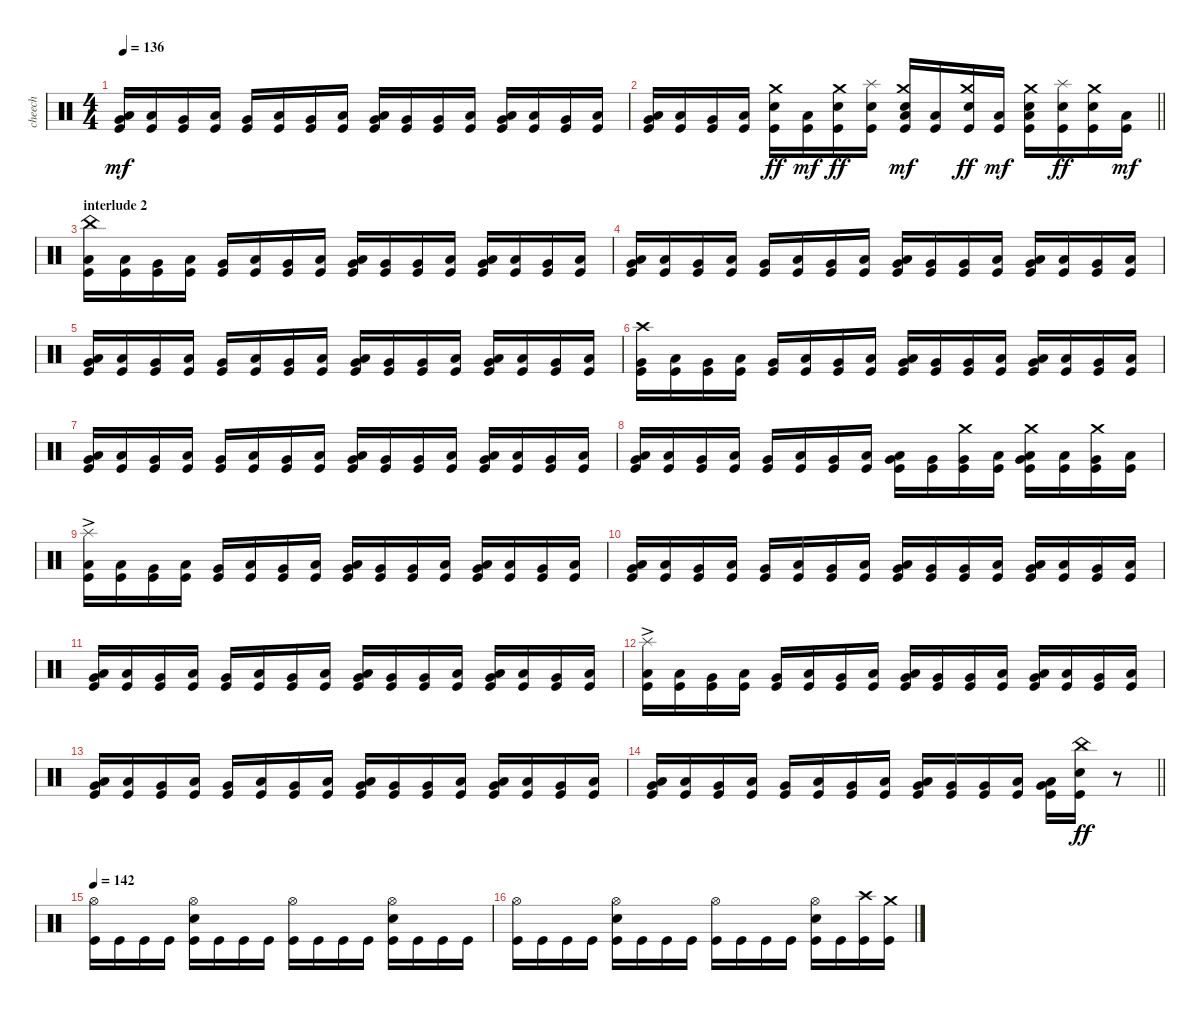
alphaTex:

\track ("cheech" "cheech") {instrument percussion}
\staff {score}
\articulation defaults
\ts (4 4)
\tempo 136
\clef neutral
\ks c
("Very Low Tom (hit)" "Low Floor Tom (hit)" "Kick (hit)").16{dy mf} ("Low Tom (hit)" "Kick (hit)").16 ("Very Low Tom (hit)" "Kick (hit)").16 ("Low Floor Tom (hit)" "Kick (hit)").16 ("Very Low Tom (hit)" "Kick (hit)").16 ("Low Floor Tom (hit)" "Kick (hit)").16 ("Very Low Tom (hit)" "Kick (hit)").16 ("Low Floor Tom (hit)" "Kick (hit)").16 ("Very Low Tom (hit)" "Low Floor Tom (hit)" "Kick (hit)").16 ("Very Low Tom (hit)" "Kick (hit)").16 ("Very Low Tom (hit)" "Kick (hit)").16 ("Low Floor Tom (hit)" "Kick (hit)").16 ("Very Low Tom (hit)" "Low Floor Tom (hit)" "Kick (hit)").16 ("Low Floor Tom (hit)" "Kick (hit)").16 ("Very Low Tom (hit)" "Kick (hit)").16 ("Low Floor Tom (hit)" "Kick (hit)").16 |
\barLineRight lightlight
("Very Low Tom (hit)" "Low Floor Tom (hit)" "Kick (hit)").16 ("Low Tom (hit)" "Kick (hit)").16 ("Very Low Tom (hit)" "Kick (hit)").16 ("Low Floor Tom (hit)" "Kick (hit)").16 ("Crash medium (hit)" "Electric Snare (hit)" "Kick (hit)").16{dy ff} ("Low Floor Tom (hit)" "Kick (hit)").16{dy mf} ("Crash medium (hit)" "Electric Snare (hit)" "Kick (hit)").16{dy ff} ("Splash (hit)" "Electric Snare (hit)" "Kick (hit)").16 ("Crash medium (hit)" "Electric Snare (hit)" "Low Floor Tom (hit)" "Kick (hit)").16{dy mf} ("Low Tom (hit)" "Kick (hit)").16 ("Crash medium (hit)" "Electric Snare (hit)" "Kick (hit)").16{dy ff} ("Low Floor Tom (hit)" "Kick (hit)").16{dy mf} ("Crash medium (hit)" "Electric Snare (hit)" "Low Floor Tom (hit)" "Kick (hit)").16 ("Splash (hit)" "Electric Snare (hit)" "Kick (hit)").16{dy ff} ("Crash medium (hit)" "Electric Snare (hit)" "Kick (hit)").16 ("Low Floor Tom (hit)" "Kick (hit)").16{dy mf} |
\section ("" "interlude 2")
("China (hit)" "Low Floor Tom (hit)" "Kick (hit)").16 ("Low Tom (hit)" "Kick (hit)").16 ("Very Low Tom (hit)" "Kick (hit)").16 ("Low Floor Tom (hit)" "Kick (hit)").16 ("Very Low Tom (hit)" "Kick (hit)").16 ("Low Floor Tom (hit)" "Kick (hit)").16 ("Very Low Tom (hit)" "Kick (hit)").16 ("Low Floor Tom (hit)" "Kick (hit)").16 ("Very Low Tom (hit)" "Low Floor Tom (hit)" "Kick (hit)").16 ("Very Low Tom (hit)" "Kick (hit)").16 ("Very Low Tom (hit)" "Kick (hit)").16 ("Low Floor Tom (hit)" "Kick (hit)").16 ("Very Low Tom (hit)" "Low Floor Tom (hit)" "Kick (hit)").16 ("Low Floor Tom (hit)" "Kick (hit)").16 ("Very Low Tom (hit)" "Kick (hit)").16 ("Low Floor Tom (hit)" "Kick (hit)").16 |
("Very Low Tom (hit)" "Low Floor Tom (hit)" "Kick (hit)").16 ("Low Tom (hit)" "Kick (hit)").16 ("Very Low Tom (hit)" "Kick (hit)").16 ("Low Floor Tom (hit)" "Kick (hit)").16 ("Very Low Tom (hit)" "Kick (hit)").16 ("Low Floor Tom (hit)" "Kick (hit)").16 ("Very Low Tom (hit)" "Kick (hit)").16 ("Low Floor Tom (hit)" "Kick (hit)").16 ("Very Low Tom (hit)" "Low Floor Tom (hit)" "Kick (hit)").16 ("Very Low Tom (hit)" "Kick (hit)").16 ("Very Low Tom (hit)" "Kick (hit)").16 ("Low Floor Tom (hit)" "Kick (hit)").16 ("Very Low Tom (hit)" "Low Floor Tom (hit)" "Kick (hit)").16 ("Low Floor Tom (hit)" "Kick (hit)").16 ("Very Low Tom (hit)" "Kick (hit)").16 ("Low Floor Tom (hit)" "Kick (hit)").16 |
("Very Low Tom (hit)" "Low Floor Tom (hit)" "Kick (hit)").16 ("Low Tom (hit)" "Kick (hit)").16 ("Very Low Tom (hit)" "Kick (hit)").16 ("Low Floor Tom (hit)" "Kick (hit)").16 ("Very Low Tom (hit)" "Kick (hit)").16 ("Low Floor Tom (hit)" "Kick (hit)").16 ("Very Low Tom (hit)" "Kick (hit)").16 ("Low Floor Tom (hit)" "Kick (hit)").16 ("Very Low Tom (hit)" "Low Floor Tom (hit)" "Kick (hit)").16 ("Very Low Tom (hit)" "Kick (hit)").16 ("Very Low Tom (hit)" "Kick (hit)").16 ("Low Floor Tom (hit)" "Kick (hit)").16 ("Very Low Tom (hit)" "Low Floor Tom (hit)" "Kick (hit)").16 ("Low Floor Tom (hit)" "Kick (hit)").16 ("Very Low Tom (hit)" "Kick (hit)").16 ("Low Floor Tom (hit)" "Kick (hit)").16 |
("Crash high (hit)" "Very Low Tom (hit)" "Kick (hit)").16 ("Low Tom (hit)" "Kick (hit)").16 ("Very Low Tom (hit)" "Kick (hit)").16 ("Low Floor Tom (hit)" "Kick (hit)").16 ("Very Low Tom (hit)" "Kick (hit)").16 ("Low Floor Tom (hit)" "Kick (hit)").16 ("Very Low Tom (hit)" "Kick (hit)").16 ("Low Floor Tom (hit)" "Kick (hit)").16 ("Very Low Tom (hit)" "Low Floor Tom (hit)" "Kick (hit)").16 ("Very Low Tom (hit)" "Kick (hit)").16 ("Very Low Tom (hit)" "Kick (hit)").16 ("Low Floor Tom (hit)" "Kick (hit)").16 ("Very Low Tom (hit)" "Low Floor Tom (hit)" "Kick (hit)").16 ("Low Floor Tom (hit)" "Kick (hit)").16 ("Very Low Tom (hit)" "Kick (hit)").16 ("Low Floor Tom (hit)" "Kick (hit)").16 |
("Very Low Tom (hit)" "Low Floor Tom (hit)" "Kick (hit)").16 ("Low Tom (hit)" "Kick (hit)").16 ("Very Low Tom (hit)" "Kick (hit)").16 ("Low Floor Tom (hit)" "Kick (hit)").16 ("Very Low Tom (hit)" "Kick (hit)").16 ("Low Floor Tom (hit)" "Kick (hit)").16 ("Very Low Tom (hit)" "Kick (hit)").16 ("Low Floor Tom (hit)" "Kick (hit)").16 ("Very Low Tom (hit)" "Low Floor Tom (hit)" "Kick (hit)").16 ("Very Low Tom (hit)" "Kick (hit)").16 ("Very Low Tom (hit)" "Kick (hit)").16 ("Low Floor Tom (hit)" "Kick (hit)").16 ("Very Low Tom (hit)" "Low Floor Tom (hit)" "Kick (hit)").16 ("Low Floor Tom (hit)" "Kick (hit)").16 ("Very Low Tom (hit)" "Kick (hit)").16 ("Low Floor Tom (hit)" "Kick (hit)").16 |
("Very Low Tom (hit)" "Low Floor Tom (hit)" "Kick (hit)").16 ("Low Tom (hit)" "Kick (hit)").16 ("Very Low Tom (hit)" "Kick (hit)").16 ("Low Floor Tom (hit)" "Kick (hit)").16 ("Very Low Tom (hit)" "Kick (hit)").16 ("Low Floor Tom (hit)" "Kick (hit)").16 ("Very Low Tom (hit)" "Kick (hit)").16 ("Low Floor Tom (hit)" "Kick (hit)").16 ("Very Low Tom (hit)" "Low Floor Tom (hit)" "Kick (hit)").16 ("Very Low Tom (hit)" "Kick (hit)").16 ("Crash medium (hit)" "Very Low Tom (hit)" "Kick (hit)").16 ("Low Floor Tom (hit)" "Kick (hit)").16 ("Crash medium (hit)" "Very Low Tom (hit)" "Low Floor Tom (hit)" "Kick (hit)").16 ("Low Floor Tom (hit)" "Kick (hit)").16 ("Crash medium (hit)" "Very Low Tom (hit)" "Kick (hit)").16 ("Low Floor Tom (hit)" "Kick (hit)").16 |
("Splash (hit)"{ac} "Low Floor Tom (hit)" "Kick (hit)").16 ("Low Tom (hit)" "Kick (hit)").16 ("Very Low Tom (hit)" "Kick (hit)").16 ("Low Floor Tom (hit)" "Kick (hit)").16 ("Very Low Tom (hit)" "Kick (hit)").16 ("Low Floor Tom (hit)" "Kick (hit)").16 ("Very Low Tom (hit)" "Kick (hit)").16 ("Low Floor Tom (hit)" "Kick (hit)").16 ("Very Low Tom (hit)" "Low Floor Tom (hit)" "Kick (hit)").16 ("Very Low Tom (hit)" "Kick (hit)").16 ("Very Low Tom (hit)" "Kick (hit)").16 ("Low Floor Tom (hit)" "Kick (hit)").16 ("Very Low Tom (hit)" "Low Floor Tom (hit)" "Kick (hit)").16 ("Low Floor Tom (hit)" "Kick (hit)").16 ("Very Low Tom (hit)" "Kick (hit)").16 ("Low Floor Tom (hit)" "Kick (hit)").16 |
("Very Low Tom (hit)" "Low Floor Tom (hit)" "Kick (hit)").16 ("Low Tom (hit)" "Kick (hit)").16 ("Very Low Tom (hit)" "Kick (hit)").16 ("Low Floor Tom (hit)" "Kick (hit)").16 ("Very Low Tom (hit)" "Kick (hit)").16 ("Low Floor Tom (hit)" "Kick (hit)").16 ("Very Low Tom (hit)" "Kick (hit)").16 ("Low Floor Tom (hit)" "Kick (hit)").16 ("Very Low Tom (hit)" "Low Floor Tom (hit)" "Kick (hit)").16 ("Very Low Tom (hit)" "Kick (hit)").16 ("Very Low Tom (hit)" "Kick (hit)").16 ("Low Floor Tom (hit)" "Kick (hit)").16 ("Very Low Tom (hit)" "Low Floor Tom (hit)" "Kick (hit)").16 ("Low Floor Tom (hit)" "Kick (hit)").16 ("Very Low Tom (hit)" "Kick (hit)").16 ("Low Floor Tom (hit)" "Kick (hit)").16 |
("Very Low Tom (hit)" "Low Floor Tom (hit)" "Kick (hit)").16 ("Low Tom (hit)" "Kick (hit)").16 ("Very Low Tom (hit)" "Kick (hit)").16 ("Low Floor Tom (hit)" "Kick (hit)").16 ("Very Low Tom (hit)" "Kick (hit)").16 ("Low Floor Tom (hit)" "Kick (hit)").16 ("Very Low Tom (hit)" "Kick (hit)").16 ("Low Floor Tom (hit)" "Kick (hit)").16 ("Very Low Tom (hit)" "Low Floor Tom (hit)" "Kick (hit)").16 ("Very Low Tom (hit)" "Kick (hit)").16 ("Very Low Tom (hit)" "Kick (hit)").16 ("Low Floor Tom (hit)" "Kick (hit)").16 ("Very Low Tom (hit)" "Low Floor Tom (hit)" "Kick (hit)").16 ("Low Floor Tom (hit)" "Kick (hit)").16 ("Very Low Tom (hit)" "Kick (hit)").16 ("Low Floor Tom (hit)" "Kick (hit)").16 |
("Splash (hit)"{ac} "Low Floor Tom (hit)" "Kick (hit)").16 ("Low Tom (hit)" "Kick (hit)").16 ("Very Low Tom (hit)" "Kick (hit)").16 ("Low Floor Tom (hit)" "Kick (hit)").16 ("Very Low Tom (hit)" "Kick (hit)").16 ("Low Floor Tom (hit)" "Kick (hit)").16 ("Very Low Tom (hit)" "Kick (hit)").16 ("Low Floor Tom (hit)" "Kick (hit)").16 ("Very Low Tom (hit)" "Low Floor Tom (hit)" "Kick (hit)").16 ("Very Low Tom (hit)" "Kick (hit)").16 ("Very Low Tom (hit)" "Kick (hit)").16 ("Low Floor Tom (hit)" "Kick (hit)").16 ("Very Low Tom (hit)" "Low Floor Tom (hit)" "Kick (hit)").16 ("Low Floor Tom (hit)" "Kick (hit)").16 ("Very Low Tom (hit)" "Kick (hit)").16 ("Low Floor Tom (hit)" "Kick (hit)").16 |
("Very Low Tom (hit)" "Low Floor Tom (hit)" "Kick (hit)").16 ("Low Tom (hit)" "Kick (hit)").16 ("Very Low Tom (hit)" "Kick (hit)").16 ("Low Floor Tom (hit)" "Kick (hit)").16 ("Very Low Tom (hit)" "Kick (hit)").16 ("Low Floor Tom (hit)" "Kick (hit)").16 ("Very Low Tom (hit)" "Kick (hit)").16 ("Low Floor Tom (hit)" "Kick (hit)").16 ("Very Low Tom (hit)" "Low Floor Tom (hit)" "Kick (hit)").16 ("Very Low Tom (hit)" "Kick (hit)").16 ("Very Low Tom (hit)" "Kick (hit)").16 ("Low Floor Tom (hit)" "Kick (hit)").16 ("Very Low Tom (hit)" "Low Floor Tom (hit)" "Kick (hit)").16 ("Low Floor Tom (hit)" "Kick (hit)").16 ("Very Low Tom (hit)" "Kick (hit)").16 ("Low Floor Tom (hit)" "Kick (hit)").16 |
\barLineRight lightlight
("Very Low Tom (hit)" "Low Floor Tom (hit)" "Kick (hit)").16 ("Low Tom (hit)" "Kick (hit)").16 ("Very Low Tom (hit)" "Kick (hit)").16 ("Low Floor Tom (hit)" "Kick (hit)").16 ("Very Low Tom (hit)" "Kick (hit)").16 ("Low Floor Tom (hit)" "Kick (hit)").16 ("Very Low Tom (hit)" "Kick (hit)").16 ("Low Floor Tom (hit)" "Kick (hit)").16 ("Very Low Tom (hit)" "Low Floor Tom (hit)" "Kick (hit)").16 ("Very Low Tom (hit)" "Kick (hit)").16 ("Very Low Tom (hit)" "Kick (hit)").16 ("Low Floor Tom (hit)" "Kick (hit)").16 ("Very Low Tom (hit)" "Low Floor Tom (hit)" "Kick (hit)").16 ("China (hit)" "Electric Snare (hit)" "Kick (hit)").16{dy ff} r.8 |
\tempo 142
("Hi-Hat (open)" "Kick (hit)").16 "Kick (hit)".16 "Kick (hit)".16 "Kick (hit)".16 ("Hi-Hat (open)" "Electric Snare (hit)" "Kick (hit)").16 "Kick (hit)".16 "Kick (hit)".16 "Kick (hit)".16 ("Hi-Hat (open)" "Kick (hit)").16 "Kick (hit)".16 "Kick (hit)".16 "Kick (hit)".16 ("Hi-Hat (open)" "Electric Snare (hit)" "Kick (hit)").16 "Kick (hit)".16 "Kick (hit)".16 "Kick (hit)".16 |
("Hi-Hat (open)" "Kick (hit)").16 "Kick (hit)".16 "Kick (hit)".16 "Kick (hit)".16 ("Hi-Hat (open)" "Electric Snare (hit)" "Kick (hit)").16 "Kick (hit)".16 "Kick (hit)".16 "Kick (hit)".16 ("Hi-Hat (open)" "Kick (hit)").16 "Kick (hit)".16 "Kick (hit)".16 "Kick (hit)".16 ("Hi-Hat (open)" "Electric Snare (hit)" "Kick (hit)").16 "Kick (hit)".16 ("Crash high (hit)" "Kick (hit)").16 ("Crash medium (hit)" "Kick (hit)").16
